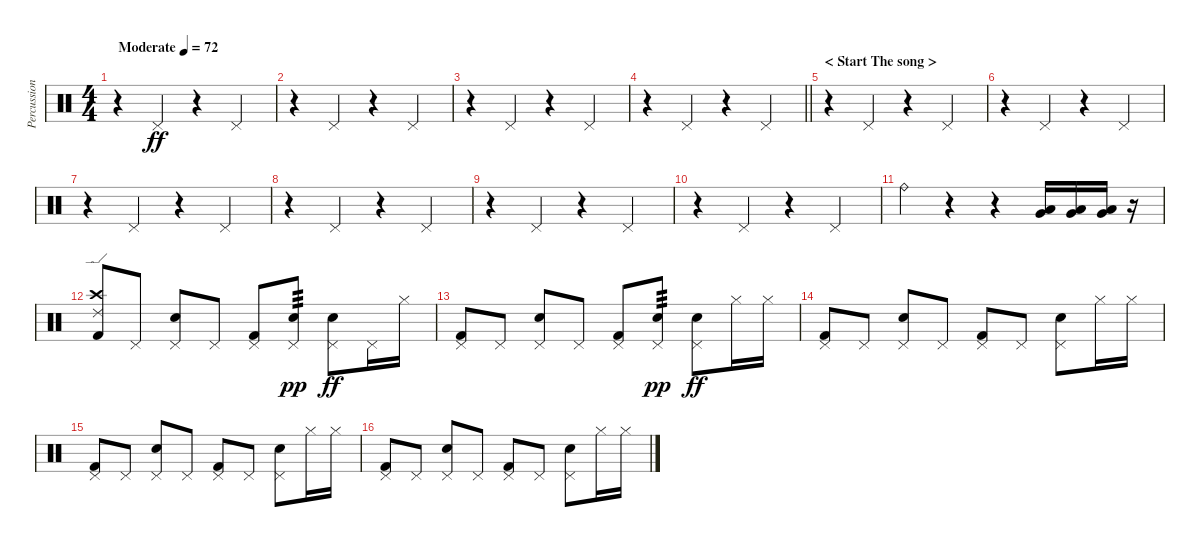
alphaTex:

\track ("Percussion" "Percussion") {instrument percussion}
\staff {score}
\articulation defaults
\ts (4 4)
\tempo (72 "Moderate")
\clef neutral
\ks c
r.4{dy ff} "Pedal Hi-Hat (hit)".4 r.4 "Pedal Hi-Hat (hit)".4 |
r.4 "Pedal Hi-Hat (hit)".4 r.4 "Pedal Hi-Hat (hit)".4 |
r.4 "Pedal Hi-Hat (hit)".4 r.4 "Pedal Hi-Hat (hit)".4 |
\barLineRight lightlight
r.4 "Pedal Hi-Hat (hit)".4 r.4 "Pedal Hi-Hat (hit)".4 |
\section ("" "< Start The song >")
r.4 "Pedal Hi-Hat (hit)".4 r.4 "Pedal Hi-Hat (hit)".4 |
r.4 "Pedal Hi-Hat (hit)".4 r.4 "Pedal Hi-Hat (hit)".4 |
r.4 "Pedal Hi-Hat (hit)".4 r.4 "Pedal Hi-Hat (hit)".4 |
r.4 "Pedal Hi-Hat (hit)".4 r.4 "Pedal Hi-Hat (hit)".4 |
r.4 "Pedal Hi-Hat (hit)".4 r.4 "Pedal Hi-Hat (hit)".4 |
r.4 "Pedal Hi-Hat (hit)".4 r.4 "Pedal Hi-Hat (hit)".4 |
"Ride (bell)".4 r.4 r.4 ("Very Low Tom (hit)" "Low Tom (hit)").16 ("Very Low Tom (hit)" "Low Tom (hit)").16 ("Very Low Tom (hit)" "Low Tom (hit)").16 r.16 |
("Ride (edge) 2" "Crash high (hit)" "Kick (hit) 2").8 "Pedal Hi-Hat (hit)".8 ("Pedal Hi-Hat (hit)" "Snare (hit) 2").8 "Pedal Hi-Hat (hit)".8 ("Pedal Hi-Hat (hit)" "Kick (hit) 2").8 ("Pedal Hi-Hat (hit)" "Snare (hit) 2").8{tp 3 dy pp} ("Pedal Hi-Hat (hit)" "Snare (hit) 2").8{dy ff} "Pedal Hi-Hat (hit)".16 "Hi-Hat (closed)".16 |
("Pedal Hi-Hat (hit)" "Kick (hit) 2").8 "Pedal Hi-Hat (hit)".8 ("Pedal Hi-Hat (hit)" "Snare (hit) 2").8 "Pedal Hi-Hat (hit)".8 ("Pedal Hi-Hat (hit)" "Kick (hit) 2").8 ("Pedal Hi-Hat (hit)" "Snare (hit) 2").8{tp 3 dy pp} ("Pedal Hi-Hat (hit)" "Snare (hit) 2").8{dy ff} "Hi-Hat (closed)".16 "Hi-Hat (closed)".16 |
("Pedal Hi-Hat (hit)" "Kick (hit) 2").8 "Pedal Hi-Hat (hit)".8 ("Pedal Hi-Hat (hit)" "Snare (hit) 2").8 "Pedal Hi-Hat (hit)".8 ("Pedal Hi-Hat (hit)" "Kick (hit) 2").8 "Pedal Hi-Hat (hit)".8 ("Pedal Hi-Hat (hit)" "Snare (hit) 2").8 "Hi-Hat (closed)".16 "Hi-Hat (closed)".16 |
("Pedal Hi-Hat (hit)" "Kick (hit) 2").8 "Pedal Hi-Hat (hit)".8 ("Pedal Hi-Hat (hit)" "Snare (hit) 2").8 "Pedal Hi-Hat (hit)".8 ("Pedal Hi-Hat (hit)" "Kick (hit) 2").8 "Pedal Hi-Hat (hit)".8 ("Pedal Hi-Hat (hit)" "Snare (hit) 2").8 "Hi-Hat (closed)".16 "Hi-Hat (closed)".16 |
("Pedal Hi-Hat (hit)" "Kick (hit) 2").8 "Pedal Hi-Hat (hit)".8 ("Pedal Hi-Hat (hit)" "Snare (hit) 2").8 "Pedal Hi-Hat (hit)".8 ("Pedal Hi-Hat (hit)" "Kick (hit) 2").8 "Pedal Hi-Hat (hit)".8 ("Pedal Hi-Hat (hit)" "Snare (hit) 2").8 "Hi-Hat (closed)".16 "Hi-Hat (closed)".16
